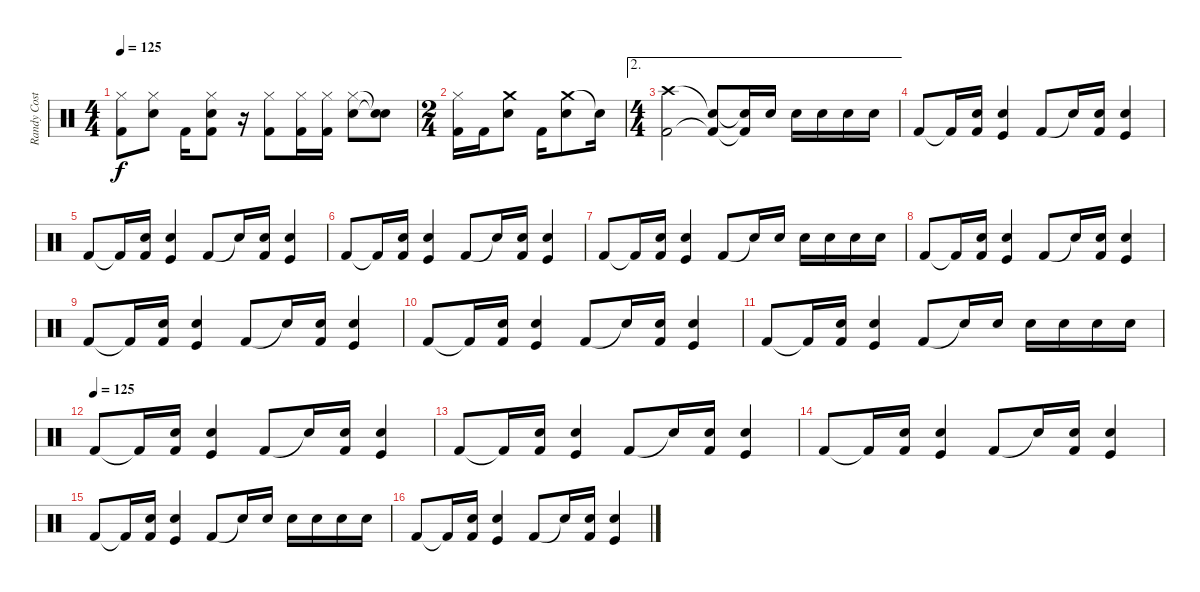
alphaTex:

\track ("Randy Costillo" "Randy Cost") {instrument percussion}
\staff {score}
\articulation defaults
\ts (4 4)
\tempo 125
\clef neutral
\ks c
("Hi-Hat (closed)" "Kick (hit) 2").8{dy f} ("Hi-Hat (closed)" "Snare (hit) 2").8 "Kick (hit) 2".16 ("Hi-Hat (closed)" "Snare (hit) 2" "Kick (hit) 2").8 r.16 ("Hi-Hat (closed)" "Kick (hit) 2").8 ("Hi-Hat (closed)" "Kick (hit) 2").16 ("Hi-Hat (closed)" "Kick (hit) 2").16 ("Hi-Hat (closed)" "Snare (hit) 2").8 ("Snare (hit)"{t} "Snare (hit)"{t}).8 |
\ts (2 4)
("Hi-Hat (closed)" "Kick (hit) 2").16 "Kick (hit) 2".16 ("Crash medium (hit)" "Snare (hit) 2").8 "Kick (hit) 2".16 ("Crash medium (hit)" "Snare (hit) 2").8 "Snare (hit)"{t}.16 |
\ae 2
\ts (4 4)
("Crash high (hit)" "Kick (hit) 2").2 ("Snare (hit)"{t} "Kick (hit) 2"{t}).8 ("Snare (hit)"{t} "Kick (hit) 2"{t}).16 "Snare (hit) 2".16 "Snare (hit) 2".16 "Snare (hit) 2".16 "Snare (hit) 2".16 "Snare (hit) 2".16 |
"Kick (hit) 2".8 "Kick (hit) 2"{t}.16 ("Snare (hit) 2" "Kick (hit) 2").16 ("Snare (hit) 2" "Kick (hit)").4 "Kick (hit) 2".8 "Snare (hit)"{t}.16 ("Snare (hit) 2" "Kick (hit) 2").16 ("Snare (hit) 2" "Kick (hit)").4 |
"Kick (hit) 2".8 "Kick (hit) 2"{t}.16 ("Snare (hit) 2" "Kick (hit) 2").16 ("Snare (hit) 2" "Kick (hit)").4 "Kick (hit) 2".8 "Snare (hit)"{t}.16 ("Snare (hit) 2" "Kick (hit) 2").16 ("Snare (hit) 2" "Kick (hit)").4 |
"Kick (hit) 2".8 "Kick (hit) 2"{t}.16 ("Snare (hit) 2" "Kick (hit) 2").16 ("Snare (hit) 2" "Kick (hit)").4 "Kick (hit) 2".8 "Snare (hit)"{t}.16 ("Snare (hit) 2" "Kick (hit) 2").16 ("Snare (hit) 2" "Kick (hit)").4 |
"Kick (hit) 2".8 "Kick (hit) 2"{t}.16 ("Snare (hit) 2" "Kick (hit) 2").16 ("Snare (hit) 2" "Kick (hit)").4 "Kick (hit) 2".8 "Snare (hit)"{t}.16 "Snare (hit) 2".16 "Snare (hit) 2".16 "Snare (hit) 2".16 "Snare (hit) 2".16 "Snare (hit) 2".16 |
"Kick (hit) 2".8 "Kick (hit) 2"{t}.16 ("Snare (hit) 2" "Kick (hit) 2").16 ("Snare (hit) 2" "Kick (hit)").4 "Kick (hit) 2".8 "Snare (hit)"{t}.16 ("Snare (hit) 2" "Kick (hit) 2").16 ("Snare (hit) 2" "Kick (hit)").4 |
"Kick (hit) 2".8 "Kick (hit) 2"{t}.16 ("Snare (hit) 2" "Kick (hit) 2").16 ("Snare (hit) 2" "Kick (hit)").4 "Kick (hit) 2".8 "Snare (hit)"{t}.16 ("Snare (hit) 2" "Kick (hit) 2").16 ("Snare (hit) 2" "Kick (hit)").4 |
"Kick (hit) 2".8 "Kick (hit) 2"{t}.16 ("Snare (hit) 2" "Kick (hit) 2").16 ("Snare (hit) 2" "Kick (hit)").4 "Kick (hit) 2".8 "Snare (hit)"{t}.16 ("Snare (hit) 2" "Kick (hit) 2").16 ("Snare (hit) 2" "Kick (hit)").4 |
"Kick (hit) 2".8 "Kick (hit) 2"{t}.16 ("Snare (hit) 2" "Kick (hit) 2").16 ("Snare (hit) 2" "Kick (hit)").4 "Kick (hit) 2".8 "Snare (hit)"{t}.16 "Snare (hit) 2".16 "Snare (hit) 2".16 "Snare (hit) 2".16 "Snare (hit) 2".16 "Snare (hit) 2".16 |
\tempo (125)
"Kick (hit) 2".8 "Kick (hit) 2"{t}.16 ("Snare (hit) 2" "Kick (hit) 2").16 ("Snare (hit) 2" "Kick (hit)").4 "Kick (hit) 2".8 "Snare (hit)"{t}.16 ("Snare (hit) 2" "Kick (hit) 2").16 ("Snare (hit) 2" "Kick (hit)").4 |
"Kick (hit) 2".8 "Kick (hit) 2"{t}.16 ("Snare (hit) 2" "Kick (hit) 2").16 ("Snare (hit) 2" "Kick (hit)").4 "Kick (hit) 2".8 "Snare (hit)"{t}.16 ("Snare (hit) 2" "Kick (hit) 2").16 ("Snare (hit) 2" "Kick (hit)").4 |
"Kick (hit) 2".8 "Kick (hit) 2"{t}.16 ("Snare (hit) 2" "Kick (hit) 2").16 ("Snare (hit) 2" "Kick (hit)").4 "Kick (hit) 2".8 "Snare (hit)"{t}.16 ("Snare (hit) 2" "Kick (hit) 2").16 ("Snare (hit) 2" "Kick (hit)").4 |
"Kick (hit) 2".8 "Kick (hit) 2"{t}.16 ("Snare (hit) 2" "Kick (hit) 2").16 ("Snare (hit) 2" "Kick (hit)").4 "Kick (hit) 2".8 "Snare (hit)"{t}.16 "Snare (hit) 2".16 "Snare (hit) 2".16 "Snare (hit) 2".16 "Snare (hit) 2".16 "Snare (hit) 2".16 |
"Kick (hit) 2".8 "Kick (hit) 2"{t}.16 ("Snare (hit) 2" "Kick (hit) 2").16 ("Snare (hit) 2" "Kick (hit)").4 "Kick (hit) 2".8 "Snare (hit)"{t}.16 ("Snare (hit) 2" "Kick (hit) 2").16 ("Snare (hit) 2" "Kick (hit)").4
